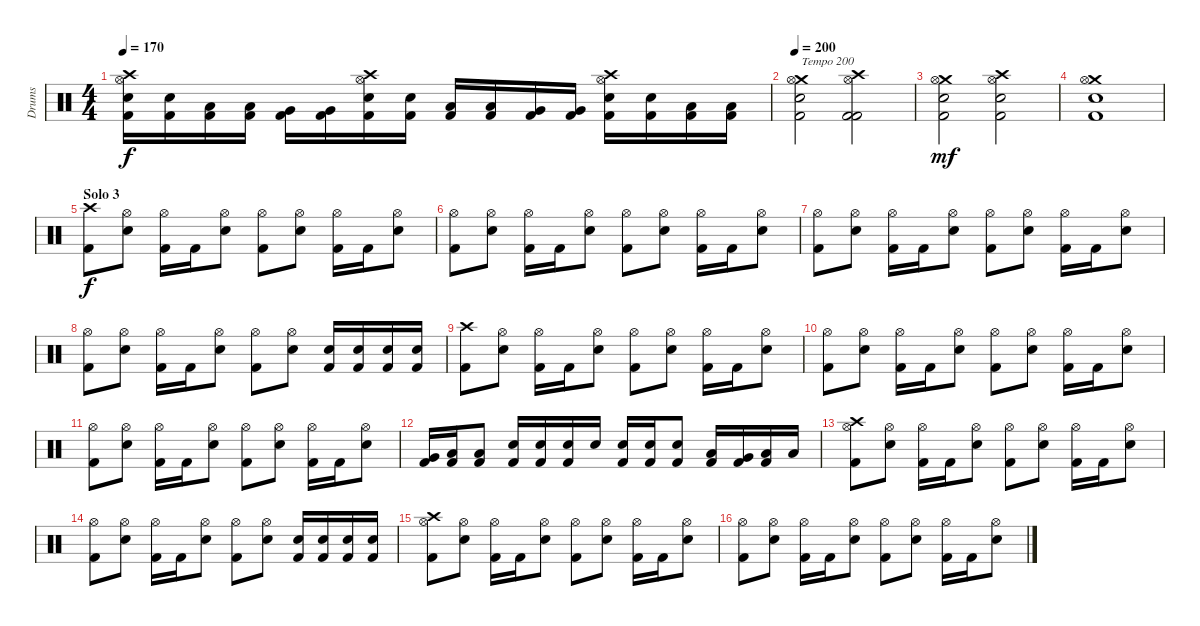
\track ("Drums" "Drums") {instrument percussion}
\staff {score}
\articulation defaults
\ts (4 4)
\tempo 170
\clef neutral
\ks c
("Crash high (hit)" "Hi-Hat (open)" "Snare (hit) 2" "Kick (hit) 2").16{dy f} ("Snare (hit) 2" "Kick (hit) 2").16 ("Low Tom (hit)" "Kick (hit) 2").16 ("Low Tom (hit)" "Kick (hit) 2").16 ("Very Low Tom (hit)" "Kick (hit) 2").16 ("Very Low Tom (hit)" "Kick (hit) 2").16 ("Crash high (hit)" "Hi-Hat (open)" "Snare (hit) 2" "Kick (hit) 2").16 ("Snare (hit) 2" "Kick (hit) 2").16 ("Low Tom (hit)" "Kick (hit) 2").16 ("Low Tom (hit)" "Kick (hit) 2").16 ("Very Low Tom (hit)" "Kick (hit) 2").16 ("Very Low Tom (hit)" "Kick (hit) 2").16 ("Crash high (hit)" "Hi-Hat (open)" "Snare (hit) 2" "Kick (hit) 2").16 ("Snare (hit) 2" "Kick (hit) 2").16 ("Low Floor Tom (hit)" "Kick (hit) 2").16 ("Low Floor Tom (hit)" "Kick (hit) 2").16 |
\tempo 200
("Crash medium (hit)" "Hi-Hat (open)" "Snare (hit) 2" "Kick (hit) 2").2{txt "Tempo 200"} ("Crash high (hit)" "Hi-Hat (open)" "Kick (hit) 2" "Kick (hit) 2").2 |
("Crash medium (hit)" "Hi-Hat (open)" "Snare (hit) 2" "Kick (hit) 2").2{dy mf} ("Crash high (hit)" "Hi-Hat (open)" "Snare (hit) 2" "Kick (hit) 2").2 |
("Crash medium (hit)" "Hi-Hat (open)" "Snare (hit) 2" "Kick (hit) 2").1 |
\section ("" "Solo 3")
("Crash high (hit)" "Kick (hit) 2").8{dy f} ("Hi-Hat (open)" "Snare (hit) 2").8 ("Hi-Hat (open)" "Kick (hit) 2").16 "Kick (hit) 2".16 ("Hi-Hat (open)" "Snare (hit) 2").8 ("Hi-Hat (open)" "Kick (hit) 2").8 ("Hi-Hat (open)" "Snare (hit) 2").8 ("Hi-Hat (open)" "Kick (hit) 2").16 "Kick (hit) 2".16 ("Hi-Hat (open)" "Snare (hit) 2").8 |
("Hi-Hat (open)" "Kick (hit) 2").8 ("Hi-Hat (open)" "Snare (hit) 2").8 ("Hi-Hat (open)" "Kick (hit) 2").16 "Kick (hit) 2".16 ("Hi-Hat (open)" "Snare (hit) 2").8 ("Hi-Hat (open)" "Kick (hit) 2").8 ("Hi-Hat (open)" "Snare (hit) 2").8 ("Hi-Hat (open)" "Kick (hit) 2").16 "Kick (hit) 2".16 ("Hi-Hat (open)" "Snare (hit) 2").8 |
("Hi-Hat (open)" "Kick (hit) 2").8 ("Hi-Hat (open)" "Snare (hit) 2").8 ("Hi-Hat (open)" "Kick (hit) 2").16 "Kick (hit) 2".16 ("Hi-Hat (open)" "Snare (hit) 2").8 ("Hi-Hat (open)" "Kick (hit) 2").8 ("Hi-Hat (open)" "Snare (hit) 2").8 ("Hi-Hat (open)" "Kick (hit) 2").16 "Kick (hit) 2".16 ("Hi-Hat (open)" "Snare (hit) 2").8 |
("Hi-Hat (open)" "Kick (hit) 2").8 ("Hi-Hat (open)" "Snare (hit) 2").8 ("Hi-Hat (open)" "Kick (hit) 2").16 "Kick (hit) 2".16 ("Hi-Hat (open)" "Snare (hit) 2").8 ("Hi-Hat (open)" "Kick (hit) 2").8 ("Hi-Hat (open)" "Snare (hit) 2").8 ("Snare (hit) 2" "Kick (hit) 2").16 ("Snare (hit) 2" "Kick (hit) 2").16 ("Snare (hit) 2" "Kick (hit) 2").16 ("Snare (hit) 2" "Kick (hit) 2").16 |
("Crash high (hit)" "Kick (hit) 2").8 ("Hi-Hat (open)" "Snare (hit) 2").8 ("Hi-Hat (open)" "Kick (hit) 2").16 "Kick (hit) 2".16 ("Hi-Hat (open)" "Snare (hit) 2").8 ("Hi-Hat (open)" "Kick (hit) 2").8 ("Hi-Hat (open)" "Snare (hit) 2").8 ("Hi-Hat (open)" "Kick (hit) 2").16 "Kick (hit) 2".16 ("Hi-Hat (open)" "Snare (hit) 2").8 |
("Hi-Hat (open)" "Kick (hit) 2").8 ("Hi-Hat (open)" "Snare (hit) 2").8 ("Hi-Hat (open)" "Kick (hit) 2").16 "Kick (hit) 2".16 ("Hi-Hat (open)" "Snare (hit) 2").8 ("Hi-Hat (open)" "Kick (hit) 2").8 ("Hi-Hat (open)" "Snare (hit) 2").8 ("Hi-Hat (open)" "Kick (hit) 2").16 "Kick (hit) 2".16 ("Hi-Hat (open)" "Snare (hit) 2").8 |
("Hi-Hat (open)" "Kick (hit) 2").8 ("Hi-Hat (open)" "Snare (hit) 2").8 ("Hi-Hat (open)" "Kick (hit) 2").16 "Kick (hit) 2".16 ("Hi-Hat (open)" "Snare (hit) 2").8 ("Hi-Hat (open)" "Kick (hit) 2").8 ("Hi-Hat (open)" "Snare (hit) 2").8 ("Hi-Hat (open)" "Kick (hit) 2").16 "Kick (hit) 2".16 ("Hi-Hat (open)" "Snare (hit) 2").8 |
("Very Low Tom (hit)" "Kick (hit) 2").16 ("Low Floor Tom (hit)" "Kick (hit) 2").16 ("Low Floor Tom (hit)" "Kick (hit) 2").8 ("Snare (hit) 2" "Kick (hit) 2").16 ("Snare (hit) 2" "Kick (hit) 2").16 ("Snare (hit) 2" "Kick (hit) 2").16 "Snare (hit) 2".16 ("Snare (hit) 2" "Kick (hit) 2").16 ("Snare (hit) 2" "Kick (hit) 2").16 ("Snare (hit) 2" "Kick (hit) 2").8 ("Low Tom (hit)" "Kick (hit) 2").16 ("Very Low Tom (hit)" "Kick (hit) 2").16 ("Low Floor Tom (hit)" "Kick (hit) 2").16 "Low Floor Tom (hit)".16 |
("Crash high (hit)" "Hi-Hat (open)" "Kick (hit) 2").8 ("Hi-Hat (open)" "Snare (hit) 2").8 ("Hi-Hat (open)" "Kick (hit) 2").16 "Kick (hit) 2".16 ("Hi-Hat (open)" "Snare (hit) 2").8 ("Hi-Hat (open)" "Kick (hit) 2").8 ("Hi-Hat (open)" "Snare (hit) 2").8 ("Hi-Hat (open)" "Kick (hit) 2").16 "Kick (hit) 2".16 ("Hi-Hat (open)" "Snare (hit) 2").8 |
("Hi-Hat (open)" "Kick (hit) 2").8 ("Hi-Hat (open)" "Snare (hit) 2").8 ("Hi-Hat (open)" "Kick (hit) 2").16 "Kick (hit) 2".16 ("Hi-Hat (open)" "Snare (hit) 2").8 ("Hi-Hat (open)" "Kick (hit) 2").8 ("Hi-Hat (open)" "Snare (hit) 2").8 ("Snare (hit) 2" "Kick (hit) 2").16 ("Snare (hit) 2" "Kick (hit) 2").16 ("Snare (hit) 2" "Kick (hit) 2").16 ("Snare (hit) 2" "Kick (hit) 2").16 |
("Crash high (hit)" "Hi-Hat (open)" "Kick (hit) 2").8 ("Hi-Hat (open)" "Snare (hit) 2").8 ("Hi-Hat (open)" "Kick (hit) 2").16 "Kick (hit) 2".16 ("Hi-Hat (open)" "Snare (hit) 2").8 ("Hi-Hat (open)" "Kick (hit) 2").8 ("Hi-Hat (open)" "Snare (hit) 2").8 ("Hi-Hat (open)" "Kick (hit) 2").16 "Kick (hit) 2".16 ("Hi-Hat (open)" "Snare (hit) 2").8 |
("Hi-Hat (open)" "Kick (hit) 2").8 ("Hi-Hat (open)" "Snare (hit) 2").8 ("Hi-Hat (open)" "Kick (hit) 2").16 "Kick (hit) 2".16 ("Hi-Hat (open)" "Snare (hit) 2").8 ("Hi-Hat (open)" "Kick (hit) 2").8 ("Hi-Hat (open)" "Snare (hit) 2").8 ("Hi-Hat (open)" "Kick (hit) 2").16 "Kick (hit) 2".16 ("Hi-Hat (open)" "Snare (hit) 2").8
